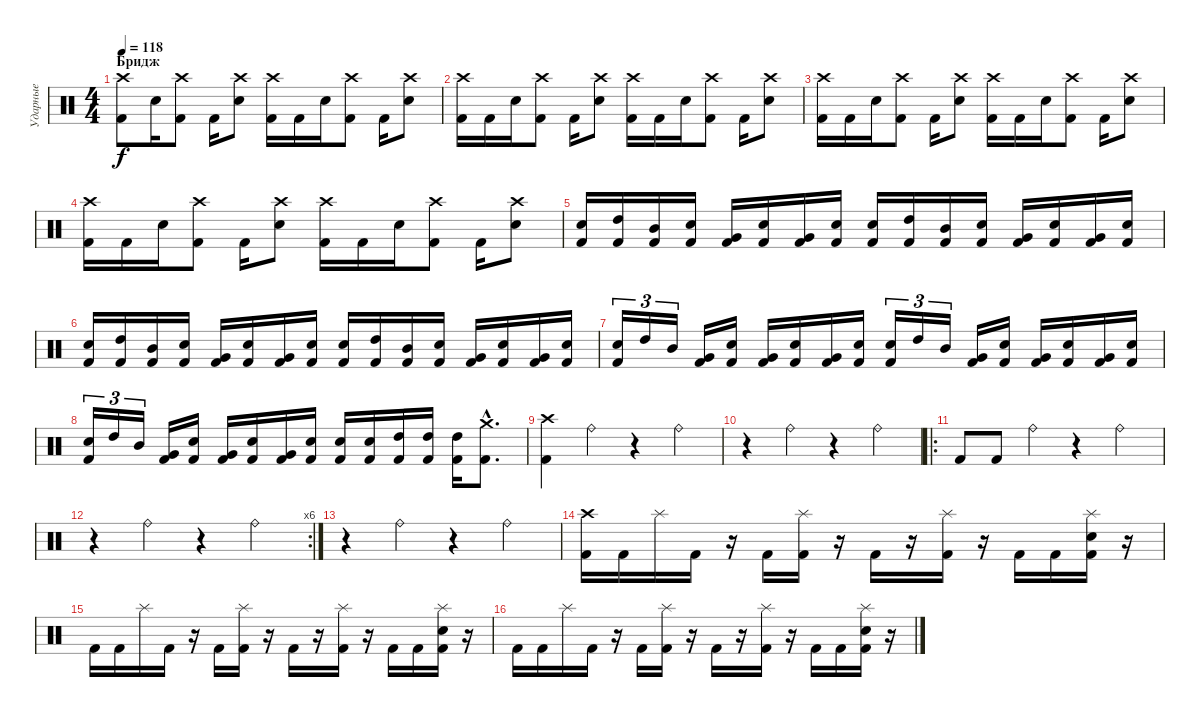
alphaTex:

\track ("Ударные" "Ударные") {instrument percussion}
\staff {score}
\articulation defaults
\ts (4 4)
\section ("" "Бридж")
\tempo 118
\clef neutral
\ks c
("Crash high (hit)" "Kick (hit) 2").8{dy f} "Electric Snare (hit)".16 ("Crash high (hit)" "Kick (hit) 2").8 "Kick (hit) 2".16 ("Crash high (hit)" "Electric Snare (hit)").8 ("Crash high (hit)" "Kick (hit) 2").16 "Kick (hit) 2".16 "Electric Snare (hit)".16 ("Crash high (hit)" "Kick (hit) 2").8 "Kick (hit) 2".16 ("Crash high (hit)" "Electric Snare (hit)").8 |
("Crash high (hit)" "Kick (hit) 2").16 "Kick (hit) 2".16 "Electric Snare (hit)".16 ("Crash high (hit)" "Kick (hit) 2").8 "Kick (hit) 2".16 ("Crash high (hit)" "Electric Snare (hit)").8 ("Crash high (hit)" "Kick (hit) 2").16 "Kick (hit) 2".16 "Electric Snare (hit)".16 ("Crash high (hit)" "Kick (hit) 2").8 "Kick (hit) 2".16 ("Crash high (hit)" "Electric Snare (hit)").8 |
("Crash high (hit)" "Kick (hit) 2").16 "Kick (hit) 2".16 "Electric Snare (hit)".16 ("Crash high (hit)" "Kick (hit) 2").8 "Kick (hit) 2".16 ("Crash high (hit)" "Electric Snare (hit)").8 ("Crash high (hit)" "Kick (hit) 2").16 "Kick (hit) 2".16 "Electric Snare (hit)".16 ("Crash high (hit)" "Kick (hit) 2").8 "Kick (hit) 2".16 ("Crash high (hit)" "Electric Snare (hit)").8 |
("Crash high (hit)" "Kick (hit) 2").16 "Kick (hit) 2".16 "Electric Snare (hit)".16 ("Crash high (hit)" "Kick (hit) 2").8 "Kick (hit) 2".16 ("Crash high (hit)" "Electric Snare (hit)").8 ("Crash high (hit)" "Kick (hit) 2").16 "Kick (hit) 2".16 "Electric Snare (hit)".16 ("Crash high (hit)" "Kick (hit) 2").8 "Kick (hit) 2".16 ("Crash high (hit)" "Electric Snare (hit)").8 |
("Electric Snare (hit)" "Kick (hit) 2").16 ("High Tom (hit)" "Kick (hit) 2").16 ("Mid Tom (hit)" "Kick (hit) 2").16 ("Electric Snare (hit)" "Kick (hit) 2").16 ("Very Low Tom (hit)" "Kick (hit) 2").16 ("Electric Snare (hit)" "Kick (hit) 2").16 ("Very Low Tom (hit)" "Kick (hit) 2").16 ("Electric Snare (hit)" "Kick (hit) 2").16 ("Electric Snare (hit)" "Kick (hit) 2").16 ("High Tom (hit)" "Kick (hit) 2").16 ("Mid Tom (hit)" "Kick (hit) 2").16 ("Electric Snare (hit)" "Kick (hit) 2").16 ("Very Low Tom (hit)" "Kick (hit) 2").16 ("Electric Snare (hit)" "Kick (hit) 2").16 ("Very Low Tom (hit)" "Kick (hit) 2").16 ("Electric Snare (hit)" "Kick (hit) 2").16 |
("Electric Snare (hit)" "Kick (hit) 2").16 ("High Tom (hit)" "Kick (hit) 2").16 ("Mid Tom (hit)" "Kick (hit) 2").16 ("Electric Snare (hit)" "Kick (hit) 2").16 ("Very Low Tom (hit)" "Kick (hit) 2").16 ("Electric Snare (hit)" "Kick (hit) 2").16 ("Very Low Tom (hit)" "Kick (hit) 2").16 ("Electric Snare (hit)" "Kick (hit) 2").16 ("Electric Snare (hit)" "Kick (hit) 2").16 ("High Tom (hit)" "Kick (hit) 2").16 ("Mid Tom (hit)" "Kick (hit) 2").16 ("Electric Snare (hit)" "Kick (hit) 2").16 ("Very Low Tom (hit)" "Kick (hit) 2").16 ("Electric Snare (hit)" "Kick (hit) 2").16 ("Very Low Tom (hit)" "Kick (hit) 2").16 ("Electric Snare (hit)" "Kick (hit) 2").16 |
("Electric Snare (hit)" "Kick (hit) 2").16{tu (3 2)} "High Tom (hit)".16{tu (3 2)} "Mid Tom (hit)".16{tu (3 2)} ("Very Low Tom (hit)" "Kick (hit) 2").16 ("Electric Snare (hit)" "Kick (hit) 2").16 ("Very Low Tom (hit)" "Kick (hit) 2").16 ("Electric Snare (hit)" "Kick (hit) 2").16 ("Very Low Tom (hit)" "Kick (hit) 2").16 ("Electric Snare (hit)" "Kick (hit) 2").16 ("Electric Snare (hit)" "Kick (hit) 2").16{tu (3 2)} "High Tom (hit)".16{tu (3 2)} "Mid Tom (hit)".16{tu (3 2)} ("Very Low Tom (hit)" "Kick (hit) 2").16 ("Electric Snare (hit)" "Kick (hit) 2").16 ("Very Low Tom (hit)" "Kick (hit) 2").16 ("Electric Snare (hit)" "Kick (hit) 2").16 ("Very Low Tom (hit)" "Kick (hit) 2").16 ("Electric Snare (hit)" "Kick (hit) 2").16 |
("Electric Snare (hit)" "Kick (hit) 2").16{tu (3 2)} "High Tom (hit)".16{tu (3 2)} "Mid Tom (hit)".16{tu (3 2)} ("Very Low Tom (hit)" "Kick (hit) 2").16 ("Electric Snare (hit)" "Kick (hit) 2").16 ("Very Low Tom (hit)" "Kick (hit) 2").16 ("Electric Snare (hit)" "Kick (hit) 2").16 ("Very Low Tom (hit)" "Kick (hit) 2").16 ("Electric Snare (hit)" "Kick (hit) 2").16 ("Electric Snare (hit)" "Kick (hit) 2").16 ("Electric Snare (hit)" "Kick (hit) 2").16 ("High Tom (hit)" "Kick (hit) 2").16 ("High Tom (hit)" "Kick (hit) 2").16 ("High Tom (hit)" "Kick (hit) 2").16 ("Crash medium (hit)"{hac} "Kick (hit) 2"{hac}).8{d} |
("Crash high (hit)" "Kick (hit) 2").4 "Ride (bell)".4 r.4 "Ride (bell)".4 |
r.4 "Ride (bell)".4 r.4 "Ride (bell)".4 |
\ro "Kick (hit) 2".8 "Kick (hit) 2".8 "Ride (bell)".4
r.4 "Ride (bell)".4 |
\rc 6
r.4 "Ride (bell)".4 r.4 "Ride (bell)".4 |
r.4 "Ride (bell)".4 r.4 "Ride (bell)".4 |
("Crash high (hit)" "Kick (hit) 2").16 "Kick (hit) 2".16 "Splash (hit)".16 "Kick (hit) 2".16 r.16 "Kick (hit) 2".16 ("Splash (hit)" "Kick (hit) 2").16 r.16 "Kick (hit) 2".16 r.16 ("Splash (hit)" "Kick (hit) 2").16 r.16 "Kick (hit) 2".16 "Kick (hit) 2".16 ("Splash (hit)" "Electric Snare (hit)" "Kick (hit) 2").16 r.16 |
"Kick (hit) 2".16 "Kick (hit) 2".16 "Splash (hit)".16 "Kick (hit) 2".16 r.16 "Kick (hit) 2".16 ("Splash (hit)" "Kick (hit) 2").16 r.16 "Kick (hit) 2".16 r.16 ("Splash (hit)" "Kick (hit) 2").16 r.16 "Kick (hit) 2".16 "Kick (hit) 2".16 ("Splash (hit)" "Electric Snare (hit)" "Kick (hit) 2").16 r.16 |
"Kick (hit) 2".16 "Kick (hit) 2".16 "Splash (hit)".16 "Kick (hit) 2".16 r.16 "Kick (hit) 2".16 ("Splash (hit)" "Kick (hit) 2").16 r.16 "Kick (hit) 2".16 r.16 ("Splash (hit)" "Kick (hit) 2").16 r.16 "Kick (hit) 2".16 "Kick (hit) 2".16 ("Splash (hit)" "Electric Snare (hit)" "Kick (hit) 2").16 r.16
